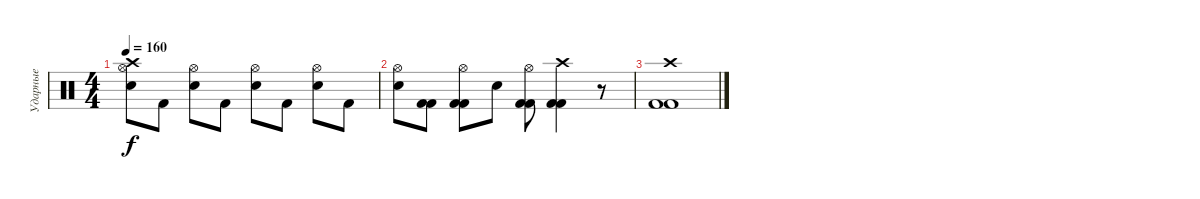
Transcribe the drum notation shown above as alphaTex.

\track ("Ударные" "Ударные") {instrument percussion}
\staff {score}
\articulation defaults
\ts (4 4)
\tempo 160
\clef neutral
\ks c
("Crash high (hit)" "Snare (hit) 2" "Hi-Hat (open)").8{dy f} "Kick (hit) 2".8 ("Snare (hit) 2" "Hi-Hat (open)").8 "Kick (hit) 2".8 ("Snare (hit) 2" "Hi-Hat (open)").8 "Kick (hit) 2".8 ("Snare (hit) 2" "Hi-Hat (open)").8 "Kick (hit) 2".8 |
("Hi-Hat (open)" "Snare (hit) 2").8 ("Kick (hit) 2" "Kick (hit) 2").8 ("Kick (hit) 2" "Hi-Hat (open)" "Kick (hit) 2").8 "Snare (hit) 2".8 ("Kick (hit) 2" "Hi-Hat (open)" "Kick (hit) 2").8 ("Crash high (hit)" "Kick (hit) 2" "Kick (hit) 2").4 r.8 |
("Crash high (hit)" "Kick (hit) 2" "Kick (hit) 2").1
